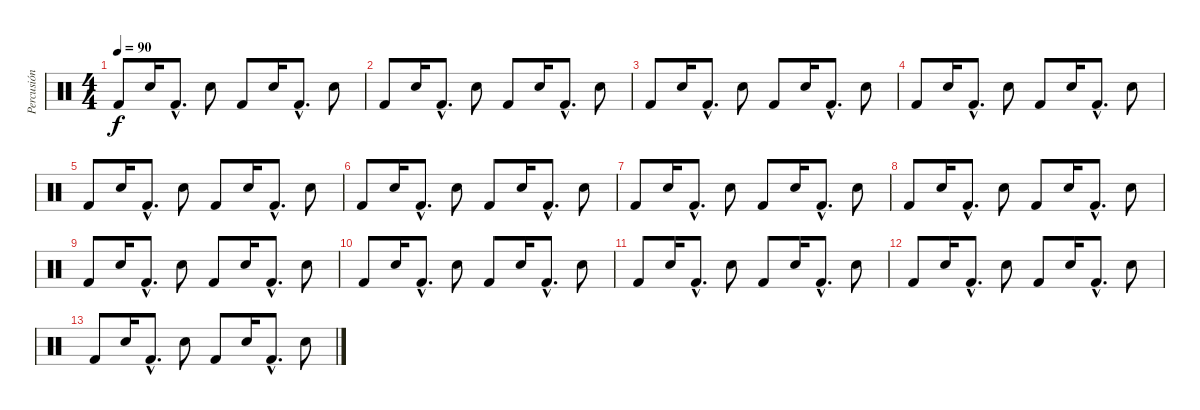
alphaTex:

\track ("Percusión" "Percusión") {instrument percussion}
\staff {score}
\articulation defaults
\ts (4 4)
\tempo 90
\clef neutral
\ks c "Kick (hit) 2".8{dy f} "Electric Snare (hit)".16 "Kick (hit) 2"{hac}.8{d} "Electric Snare (hit)".8 "Kick (hit) 2".8 "Electric Snare (hit)".16 "Kick (hit) 2"{hac}.8{d} "Electric Snare (hit)".8
|
"Kick (hit) 2".8 "Electric Snare (hit)".16 "Kick (hit) 2"{hac}.8{d} "Electric Snare (hit)".8 "Kick (hit) 2".8 "Electric Snare (hit)".16 "Kick (hit) 2"{hac}.8{d} "Electric Snare (hit)".8 |
"Kick (hit) 2".8 "Electric Snare (hit)".16 "Kick (hit) 2"{hac}.8{d} "Electric Snare (hit)".8 "Kick (hit) 2".8 "Electric Snare (hit)".16 "Kick (hit) 2"{hac}.8{d} "Electric Snare (hit)".8 |
"Kick (hit) 2".8 "Electric Snare (hit)".16 "Kick (hit) 2"{hac}.8{d} "Electric Snare (hit)".8 "Kick (hit) 2".8 "Electric Snare (hit)".16 "Kick (hit) 2"{hac}.8{d} "Electric Snare (hit)".8 |
"Kick (hit) 2".8 "Electric Snare (hit)".16 "Kick (hit) 2"{hac}.8{d} "Electric Snare (hit)".8 "Kick (hit) 2".8 "Electric Snare (hit)".16 "Kick (hit) 2"{hac}.8{d} "Electric Snare (hit)".8 |
"Kick (hit) 2".8 "Electric Snare (hit)".16 "Kick (hit) 2"{hac}.8{d} "Electric Snare (hit)".8 "Kick (hit) 2".8 "Electric Snare (hit)".16 "Kick (hit) 2"{hac}.8{d} "Electric Snare (hit)".8 |
"Kick (hit) 2".8 "Electric Snare (hit)".16 "Kick (hit) 2"{hac}.8{d} "Electric Snare (hit)".8 "Kick (hit) 2".8 "Electric Snare (hit)".16 "Kick (hit) 2"{hac}.8{d} "Electric Snare (hit)".8 |
"Kick (hit) 2".8 "Electric Snare (hit)".16 "Kick (hit) 2"{hac}.8{d} "Electric Snare (hit)".8 "Kick (hit) 2".8 "Electric Snare (hit)".16 "Kick (hit) 2"{hac}.8{d} "Electric Snare (hit)".8 |
"Kick (hit) 2".8 "Electric Snare (hit)".16 "Kick (hit) 2"{hac}.8{d} "Electric Snare (hit)".8 "Kick (hit) 2".8 "Electric Snare (hit)".16 "Kick (hit) 2"{hac}.8{d} "Electric Snare (hit)".8 |
"Kick (hit) 2".8 "Electric Snare (hit)".16 "Kick (hit) 2"{hac}.8{d} "Electric Snare (hit)".8 "Kick (hit) 2".8 "Electric Snare (hit)".16 "Kick (hit) 2"{hac}.8{d} "Electric Snare (hit)".8 |
"Kick (hit) 2".8 "Electric Snare (hit)".16 "Kick (hit) 2"{hac}.8{d} "Electric Snare (hit)".8 "Kick (hit) 2".8 "Electric Snare (hit)".16 "Kick (hit) 2"{hac}.8{d} "Electric Snare (hit)".8 |
"Kick (hit) 2".8 "Electric Snare (hit)".16 "Kick (hit) 2"{hac}.8{d} "Electric Snare (hit)".8 "Kick (hit) 2".8 "Electric Snare (hit)".16 "Kick (hit) 2"{hac}.8{d} "Electric Snare (hit)".8 |
"Kick (hit) 2".8 "Electric Snare (hit)".16 "Kick (hit) 2"{hac}.8{d} "Electric Snare (hit)".8 "Kick (hit) 2".8 "Electric Snare (hit)".16 "Kick (hit) 2"{hac}.8{d} "Electric Snare (hit)".8
